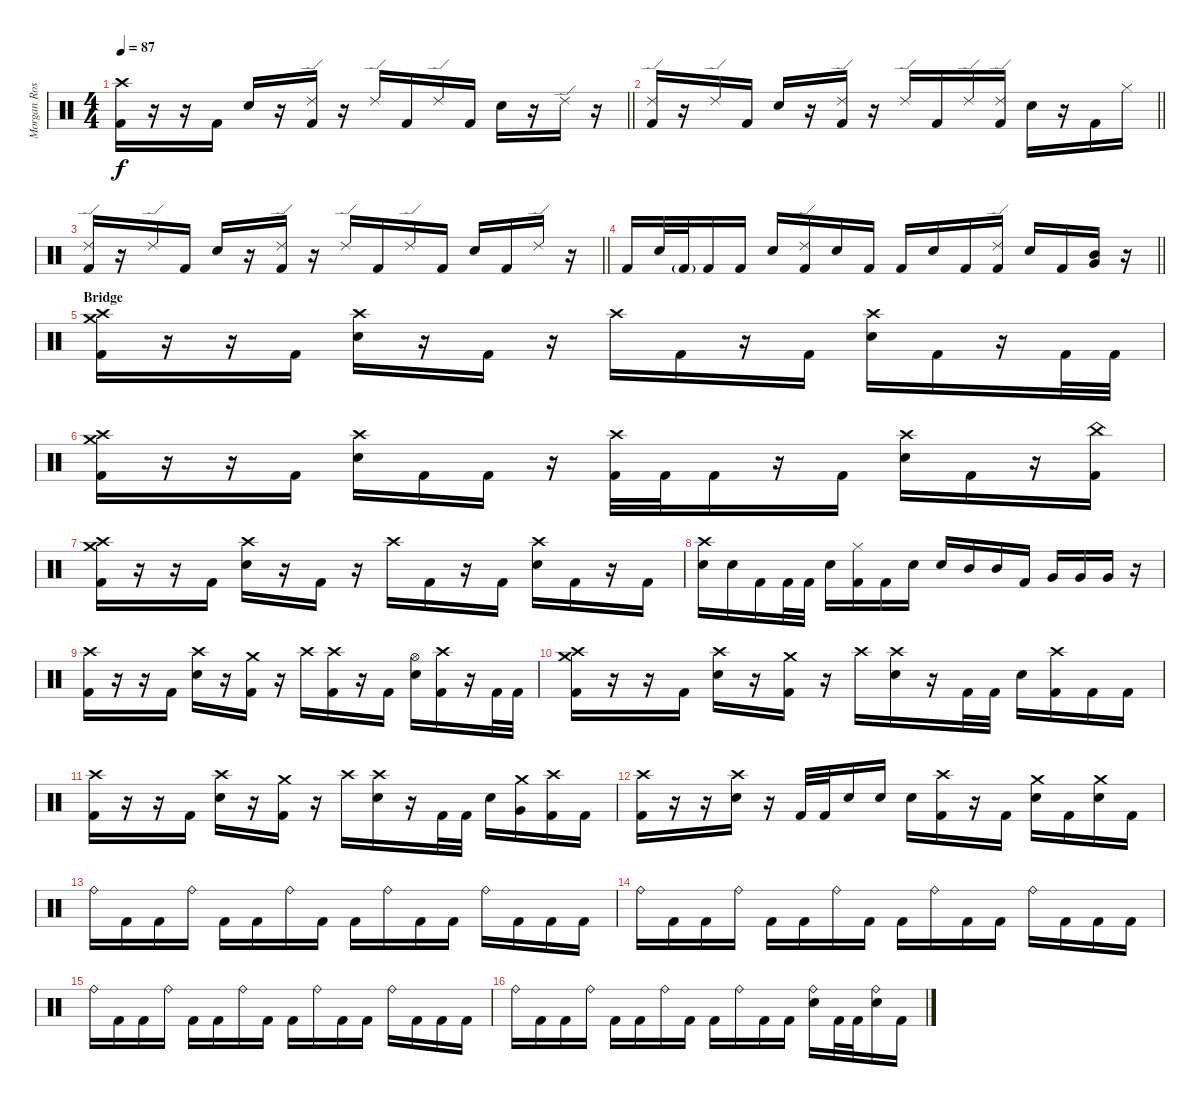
\track ("Morgan Rose" "Morgan Ros") {instrument percussion}
\staff {score}
\articulation defaults
\ts (4 4)
\tempo 87
\clef neutral
\barLineRight lightlight
\ks c
("Crash high (hit)" "Kick (hit) 2").16{dy f} r.16 r.16 "Kick (hit) 2".16 "Snare (hit) 2".16 r.16 ("Ride (edge) 2" "Kick (hit) 2").16 r.16 "Ride (edge) 2".16 "Kick (hit) 2".16 "Ride (edge) 2".16 "Kick (hit) 2".16 "Snare (hit) 2".16 r.16 "Ride (edge) 2".16 r.16 |
\barLineRight lightlight
("Ride (edge) 2" "Kick (hit) 2").16 r.16 "Ride (edge) 2".16 "Kick (hit) 2".16 "Snare (hit) 2".16 r.16 ("Ride (edge) 2" "Kick (hit) 2").16 r.16 "Ride (edge) 2".16 "Kick (hit) 2".16 "Ride (edge) 2".16 ("Ride (edge) 2" "Kick (hit) 2").16 "Snare (hit) 2".16 r.16 "Kick (hit) 2".16 "Hi-Hat (closed)".16 |
\barLineRight lightlight
("Ride (edge) 2" "Kick (hit) 2").16 r.16 "Ride (edge) 2".16 "Kick (hit) 2".16 "Snare (hit) 2".16 r.16 ("Ride (edge) 2" "Kick (hit) 2").16 r.16 "Ride (edge) 2".16 "Kick (hit) 2".16 "Ride (edge) 2".16 "Kick (hit) 2".16 "Snare (hit) 2".16 "Kick (hit) 2".16 "Ride (edge) 2".16 r.16 |
\barLineRight lightlight "Kick (hit) 2".16 "Snare (hit) 2".32 "Kick (hit) 2"{g}.32 "Kick (hit) 2".16 "Kick (hit) 2".16 "Snare (hit) 2".16
("Ride (edge) 2" "Kick (hit) 2").16 "Snare (hit) 2".16 "Kick (hit) 2".16 "Kick (hit) 2".16 "Snare (hit) 2".16 "Kick (hit) 2".16 ("Ride (edge) 2" "Kick (hit) 2").16 "Snare (hit) 2".16 "Kick (hit) 2".16 ("Mid Tom (hit)" "Very Low Tom (hit)").16 r.16 |
\section ("" "Bridge")
("Crash medium (hit)" "Crash high (hit)" "Kick (hit) 2").16 r.16 r.16 "Kick (hit) 2".16 ("Crash high (hit)" "Snare (hit) 2").16 r.16 "Kick (hit) 2".16 r.16 "Crash high (hit)".16 "Kick (hit) 2".16 r.16 "Kick (hit) 2".16 ("Crash high (hit)" "Snare (hit) 2").16 "Kick (hit) 2".16 r.16 "Kick (hit) 2".32 "Kick (hit) 2".32 |
("Crash medium (hit)" "Crash high (hit)" "Kick (hit) 2").16 r.16 r.16 "Kick (hit) 2".16 ("Crash high (hit)" "Snare (hit) 2").16 "Kick (hit) 2".16 "Kick (hit) 2".16 r.16 ("Crash high (hit)" "Kick (hit) 2").32 "Kick (hit) 2".32 "Kick (hit) 2".16 r.16 "Kick (hit) 2".16 ("Crash high (hit)" "Snare (hit) 2").16 "Kick (hit) 2".16 r.16 ("China (hit)" "Kick (hit) 2").16 |
("Crash medium (hit)" "Crash high (hit)" "Kick (hit) 2").16 r.16 r.16 "Kick (hit) 2".16 ("Crash high (hit)" "Snare (hit) 2").16 r.16 "Kick (hit) 2".16 r.16 "Crash high (hit)".16 "Kick (hit) 2".16 r.16 "Kick (hit) 2".16 ("Crash high (hit)" "Snare (hit) 2").16 "Kick (hit) 2".16 r.16 "Kick (hit) 2".16 |
("Crash high (hit)" "Snare (hit) 2").16 "Snare (hit) 2".16 "Kick (hit) 2".16 "Kick (hit) 2".32 "Kick (hit) 2".32 "Snare (hit) 2".16 ("Hi-Hat (closed)" "Kick (hit) 2").16 "Kick (hit) 2".16 "Snare (hit) 2".16 "Snare (hit) 2".16 "Mid Tom (hit)".16 "Mid Tom (hit)".16 "Kick (hit) 2".16 "Very Low Tom (hit)".16 "Very Low Tom (hit)".16 "Very Low Tom (hit)".16 r.16 |
("Crash high (hit)" "Kick (hit) 2").16 r.16 r.16 "Kick (hit) 2".16 ("Crash high (hit)" "Snare (hit) 2").16 r.16 ("Crash medium (hit)" "Kick (hit) 2").16 r.16 "Crash high (hit)".16 ("Crash high (hit)" "Kick (hit) 2").16 r.16 "Kick (hit) 2".16 ("Hi-Hat (open)" "Snare (hit) 2").16 ("Crash high (hit)" "Kick (hit) 2").16 r.16 "Kick (hit) 2".32 "Kick (hit) 2".32 |
("Crash medium (hit)" "Crash high (hit)" "Kick (hit) 2").16 r.16 r.16 "Kick (hit) 2".16 ("Crash high (hit)" "Snare (hit) 2").16 r.16 ("Crash medium (hit)" "Kick (hit) 2").16 r.16 "Crash high (hit)".16 ("Crash high (hit)" "Snare (hit) 2").16 r.16 "Kick (hit) 2".32 "Kick (hit) 2".32 "Snare (hit) 2".16 ("Crash high (hit)" "Kick (hit) 2").16 "Kick (hit) 2".16 "Kick (hit) 2".16 |
("Crash high (hit)" "Kick (hit) 2").16 r.16 r.16 "Kick (hit) 2".16 ("Crash high (hit)" "Snare (hit) 2").16 r.16 ("Crash medium (hit)" "Kick (hit) 2").16 r.16 "Crash high (hit)".16 ("Crash high (hit)" "Snare (hit) 2").16 r.16 "Kick (hit) 2".32 "Kick (hit) 2".32 "Snare (hit) 2".16 ("Crash medium (hit)" "Very Low Tom (hit)").16 ("Crash high (hit)" "Kick (hit) 2").16 "Kick (hit) 2".16 |
("Crash high (hit)" "Kick (hit) 2").16 r.16 r.16 ("Crash high (hit)" "Snare (hit) 2").16 r.16 "Kick (hit) 2".32 "Kick (hit) 2".32 "Snare (hit) 2".16 "Snare (hit) 2".16 "Snare (hit) 2".16 ("Crash high (hit)" "Kick (hit) 2").16 r.16 "Kick (hit) 2".16 ("Crash medium (hit)" "Snare (hit) 2").16 "Kick (hit) 2".16 ("Crash medium (hit)" "Snare (hit) 2").16 "Kick (hit) 2".16 |
"Ride (bell)".16 "Kick (hit) 2".16 "Kick (hit) 2".16 "Ride (bell)".16 "Kick (hit) 2".16 "Kick (hit) 2".16 "Ride (bell)".16 "Kick (hit) 2".16 "Kick (hit) 2".16 "Ride (bell)".16 "Kick (hit) 2".16 "Kick (hit) 2".16 "Ride (bell)".16 "Kick (hit) 2".16 "Kick (hit) 2".16 "Kick (hit) 2".16 |
"Ride (bell)".16 "Kick (hit) 2".16 "Kick (hit) 2".16 "Ride (bell)".16 "Kick (hit) 2".16 "Kick (hit) 2".16 "Ride (bell)".16 "Kick (hit) 2".16 "Kick (hit) 2".16 "Ride (bell)".16 "Kick (hit) 2".16 "Kick (hit) 2".16 "Ride (bell)".16 "Kick (hit) 2".16 "Kick (hit) 2".16 "Kick (hit) 2".16 |
"Ride (bell)".16 "Kick (hit) 2".16 "Kick (hit) 2".16 "Ride (bell)".16 "Kick (hit) 2".16 "Kick (hit) 2".16 "Ride (bell)".16 "Kick (hit) 2".16 "Kick (hit) 2".16 "Ride (bell)".16 "Kick (hit) 2".16 "Kick (hit) 2".16 "Ride (bell)".16 "Kick (hit) 2".16 "Kick (hit) 2".16 "Kick (hit) 2".16 |
"Ride (bell)".16 "Kick (hit) 2".16 "Kick (hit) 2".16 "Ride (bell)".16 "Kick (hit) 2".16 "Kick (hit) 2".16 "Ride (bell)".16 "Kick (hit) 2".16 "Kick (hit) 2".16 "Ride (bell)".16 "Kick (hit) 2".16 "Kick (hit) 2".16 ("Ride (bell)" "Snare (hit) 2").16 "Kick (hit) 2".32 "Kick (hit) 2".32 ("Ride (bell)" "Snare (hit) 2").16 "Kick (hit) 2".16
